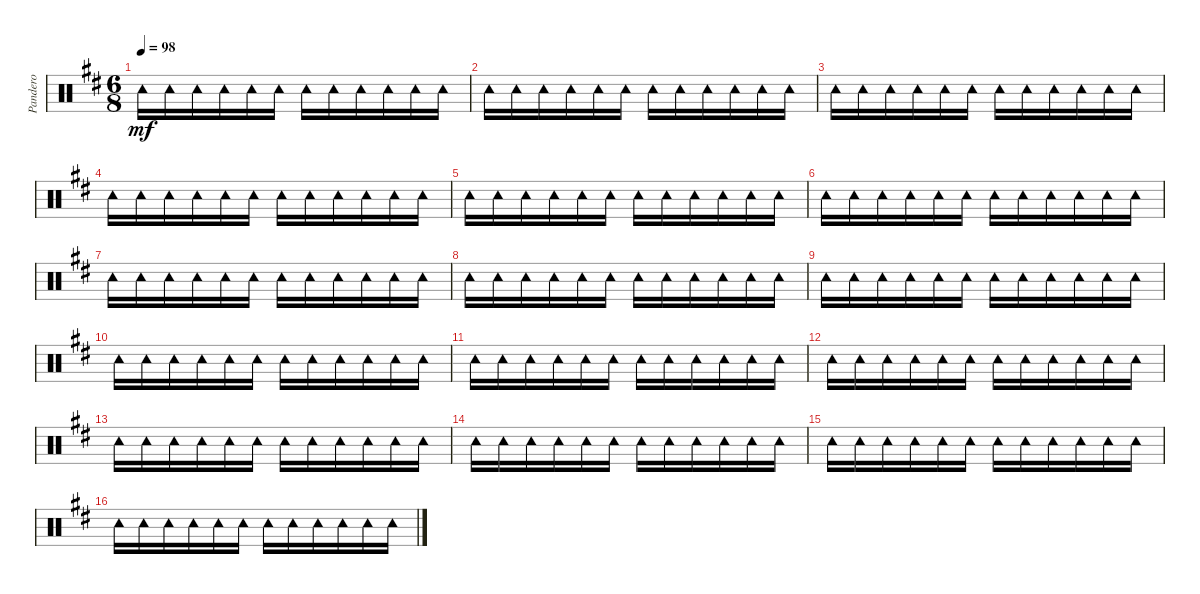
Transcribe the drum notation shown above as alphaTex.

\track ("Pandero" "Pandero") {instrument percussion}
\staff {score}
\articulation defaults
\ts (6 8)
\tempo 98
\clef neutral
\ks d "Tambourine (hit)".16{dy mf} "Tambourine (hit)".16 "Tambourine (hit)".16 "Tambourine (hit)".16 "Tambourine (hit)".16 "Tambourine (hit)".16 "Tambourine (hit)".16 "Tambourine (hit)".16 "Tambourine (hit)".16 "Tambourine (hit)".16 "Tambourine (hit)".16 "Tambourine (hit)".16
|
"Tambourine (hit)".16 "Tambourine (hit)".16 "Tambourine (hit)".16 "Tambourine (hit)".16 "Tambourine (hit)".16 "Tambourine (hit)".16 "Tambourine (hit)".16 "Tambourine (hit)".16 "Tambourine (hit)".16 "Tambourine (hit)".16 "Tambourine (hit)".16 "Tambourine (hit)".16 |
"Tambourine (hit)".16 "Tambourine (hit)".16 "Tambourine (hit)".16 "Tambourine (hit)".16 "Tambourine (hit)".16 "Tambourine (hit)".16 "Tambourine (hit)".16 "Tambourine (hit)".16 "Tambourine (hit)".16 "Tambourine (hit)".16 "Tambourine (hit)".16 "Tambourine (hit)".16 |
"Tambourine (hit)".16 "Tambourine (hit)".16 "Tambourine (hit)".16 "Tambourine (hit)".16 "Tambourine (hit)".16 "Tambourine (hit)".16 "Tambourine (hit)".16 "Tambourine (hit)".16 "Tambourine (hit)".16 "Tambourine (hit)".16 "Tambourine (hit)".16 "Tambourine (hit)".16 |
"Tambourine (hit)".16 "Tambourine (hit)".16 "Tambourine (hit)".16 "Tambourine (hit)".16 "Tambourine (hit)".16 "Tambourine (hit)".16 "Tambourine (hit)".16 "Tambourine (hit)".16 "Tambourine (hit)".16 "Tambourine (hit)".16 "Tambourine (hit)".16 "Tambourine (hit)".16 |
"Tambourine (hit)".16 "Tambourine (hit)".16 "Tambourine (hit)".16 "Tambourine (hit)".16 "Tambourine (hit)".16 "Tambourine (hit)".16 "Tambourine (hit)".16 "Tambourine (hit)".16 "Tambourine (hit)".16 "Tambourine (hit)".16 "Tambourine (hit)".16 "Tambourine (hit)".16 |
"Tambourine (hit)".16 "Tambourine (hit)".16 "Tambourine (hit)".16 "Tambourine (hit)".16 "Tambourine (hit)".16 "Tambourine (hit)".16 "Tambourine (hit)".16 "Tambourine (hit)".16 "Tambourine (hit)".16 "Tambourine (hit)".16 "Tambourine (hit)".16 "Tambourine (hit)".16 |
"Tambourine (hit)".16 "Tambourine (hit)".16 "Tambourine (hit)".16 "Tambourine (hit)".16 "Tambourine (hit)".16 "Tambourine (hit)".16 "Tambourine (hit)".16 "Tambourine (hit)".16 "Tambourine (hit)".16 "Tambourine (hit)".16 "Tambourine (hit)".16 "Tambourine (hit)".16 |
"Tambourine (hit)".16 "Tambourine (hit)".16 "Tambourine (hit)".16 "Tambourine (hit)".16 "Tambourine (hit)".16 "Tambourine (hit)".16 "Tambourine (hit)".16 "Tambourine (hit)".16 "Tambourine (hit)".16 "Tambourine (hit)".16 "Tambourine (hit)".16 "Tambourine (hit)".16 |
"Tambourine (hit)".16 "Tambourine (hit)".16 "Tambourine (hit)".16 "Tambourine (hit)".16 "Tambourine (hit)".16 "Tambourine (hit)".16 "Tambourine (hit)".16 "Tambourine (hit)".16 "Tambourine (hit)".16 "Tambourine (hit)".16 "Tambourine (hit)".16 "Tambourine (hit)".16 |
"Tambourine (hit)".16 "Tambourine (hit)".16 "Tambourine (hit)".16 "Tambourine (hit)".16 "Tambourine (hit)".16 "Tambourine (hit)".16 "Tambourine (hit)".16 "Tambourine (hit)".16 "Tambourine (hit)".16 "Tambourine (hit)".16 "Tambourine (hit)".16 "Tambourine (hit)".16 |
"Tambourine (hit)".16 "Tambourine (hit)".16 "Tambourine (hit)".16 "Tambourine (hit)".16 "Tambourine (hit)".16 "Tambourine (hit)".16 "Tambourine (hit)".16 "Tambourine (hit)".16 "Tambourine (hit)".16 "Tambourine (hit)".16 "Tambourine (hit)".16 "Tambourine (hit)".16 |
"Tambourine (hit)".16 "Tambourine (hit)".16 "Tambourine (hit)".16 "Tambourine (hit)".16 "Tambourine (hit)".16 "Tambourine (hit)".16 "Tambourine (hit)".16 "Tambourine (hit)".16 "Tambourine (hit)".16 "Tambourine (hit)".16 "Tambourine (hit)".16 "Tambourine (hit)".16 |
"Tambourine (hit)".16 "Tambourine (hit)".16 "Tambourine (hit)".16 "Tambourine (hit)".16 "Tambourine (hit)".16 "Tambourine (hit)".16 "Tambourine (hit)".16 "Tambourine (hit)".16 "Tambourine (hit)".16 "Tambourine (hit)".16 "Tambourine (hit)".16 "Tambourine (hit)".16 |
"Tambourine (hit)".16 "Tambourine (hit)".16 "Tambourine (hit)".16 "Tambourine (hit)".16 "Tambourine (hit)".16 "Tambourine (hit)".16 "Tambourine (hit)".16 "Tambourine (hit)".16 "Tambourine (hit)".16 "Tambourine (hit)".16 "Tambourine (hit)".16 "Tambourine (hit)".16 |
"Tambourine (hit)".16 "Tambourine (hit)".16 "Tambourine (hit)".16 "Tambourine (hit)".16 "Tambourine (hit)".16 "Tambourine (hit)".16 "Tambourine (hit)".16 "Tambourine (hit)".16 "Tambourine (hit)".16 "Tambourine (hit)".16 "Tambourine (hit)".16 "Tambourine (hit)".16
